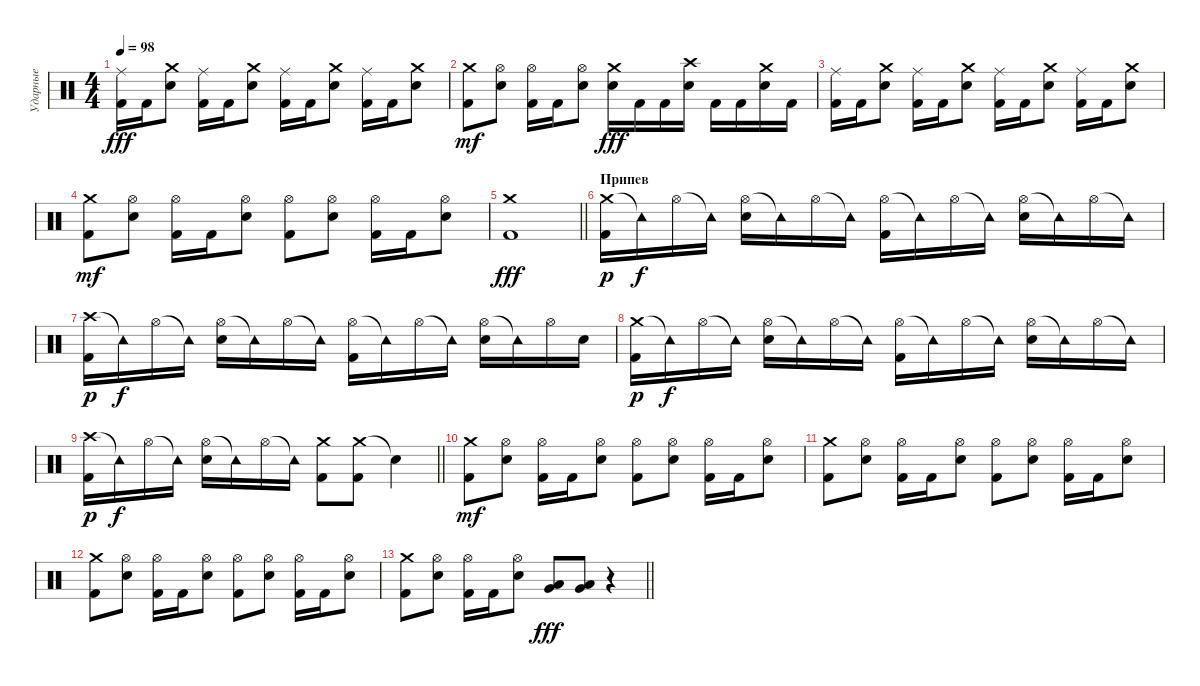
\track ("Ударные" "Ударные") {instrument percussion}
\staff {score}
\articulation defaults
\ts (4 4)
\tempo 98
\clef neutral
\ks c
("Ride (middle)" "Kick (hit) 2").16{dy fff} "Kick (hit) 2".16 ("Crash medium (hit)" "Snare (hit) 2").8 ("Ride (middle)" "Kick (hit) 2").16 "Kick (hit) 2".16 ("Crash medium (hit)" "Snare (hit) 2").8 ("Ride (middle)" "Kick (hit) 2").16 "Kick (hit) 2".16 ("Crash medium (hit)" "Snare (hit) 2").8 ("Ride (middle)" "Kick (hit) 2").16 "Kick (hit) 2".16 ("Crash medium (hit)" "Snare (hit) 2").8 |
("Crash medium (hit)" "Kick (hit) 2").8{dy mf} ("Hi-Hat (open)" "Snare (hit) 2").8 ("Hi-Hat (open)" "Kick (hit) 2").16 "Kick (hit) 2".16 ("Hi-Hat (open)" "Snare (hit) 2").8 ("Crash medium (hit)" "Snare (hit) 2").16{dy fff} "Kick (hit) 2".16 "Kick (hit) 2".16 ("Crash high (hit)" "Snare (hit) 2").16 "Kick (hit) 2".16 "Kick (hit) 2".16 ("Crash medium (hit)" "Snare (hit) 2").16 "Kick (hit) 2".16 |
("Ride (middle)" "Kick (hit) 2").16 "Kick (hit) 2".16 ("Crash medium (hit)" "Snare (hit) 2").8 ("Ride (middle)" "Kick (hit) 2").16 "Kick (hit) 2".16 ("Crash medium (hit)" "Snare (hit) 2").8 ("Ride (middle)" "Kick (hit) 2").16 "Kick (hit) 2".16 ("Crash medium (hit)" "Snare (hit) 2").8 ("Ride (middle)" "Kick (hit) 2").16 "Kick (hit) 2".16 ("Crash medium (hit)" "Snare (hit) 2").8 |
("Crash medium (hit)" "Kick (hit) 2").8{dy mf} ("Hi-Hat (open)" "Snare (hit) 2").8 ("Hi-Hat (open)" "Kick (hit) 2").16 "Kick (hit) 2".16 ("Hi-Hat (open)" "Snare (hit) 2").8 ("Hi-Hat (open)" "Kick (hit) 2").8 ("Hi-Hat (open)" "Snare (hit) 2").8 ("Hi-Hat (open)" "Kick (hit) 2").16 "Kick (hit) 2".16 ("Hi-Hat (open)" "Snare (hit) 2").8 |
\barLineRight lightlight
("Crash medium (hit)" "Kick (hit) 2").1{dy fff} |
\section ("" "Припев")
("Crash medium (hit)" "Kick (hit) 2").16{dy p} "Tambourine (hit)"{t}.16{dy f} "Hi-Hat (open)".16 "Tambourine (hit)"{t}.16 ("Hi-Hat (open)" "Snare (hit) 2").16 "Tambourine (hit)"{t}.16 "Hi-Hat (open)".16 "Tambourine (hit)"{t}.16 ("Hi-Hat (open)" "Kick (hit) 2").16 "Tambourine (hit)"{t}.16 "Hi-Hat (open)".16 "Tambourine (hit)"{t}.16 ("Hi-Hat (open)" "Snare (hit) 2").16 "Tambourine (hit)"{t}.16 "Hi-Hat (open)".16 "Tambourine (hit)"{t}.16 |
("Crash high (hit)" "Kick (hit) 2").16{dy p} "Tambourine (hit)"{t}.16{dy f} "Hi-Hat (open)".16 "Tambourine (hit)"{t}.16 ("Hi-Hat (open)" "Snare (hit) 2").16 "Tambourine (hit)"{t}.16 "Hi-Hat (open)".16 "Tambourine (hit)"{t}.16 ("Hi-Hat (open)" "Kick (hit) 2").16 "Tambourine (hit)"{t}.16 "Hi-Hat (open)".16 "Tambourine (hit)"{t}.16 ("Hi-Hat (open)" "Snare (hit) 2").16 "Tambourine (hit)"{t}.16 "Hi-Hat (open)".16 "Snare (hit) 2".16 |
("Crash medium (hit)" "Kick (hit) 2").16{dy p} "Tambourine (hit)"{t}.16{dy f} "Hi-Hat (open)".16 "Tambourine (hit)"{t}.16 ("Hi-Hat (open)" "Snare (hit) 2").16 "Tambourine (hit)"{t}.16 "Hi-Hat (open)".16 "Tambourine (hit)"{t}.16 ("Hi-Hat (open)" "Kick (hit) 2").16 "Tambourine (hit)"{t}.16 "Hi-Hat (open)".16 "Tambourine (hit)"{t}.16 ("Hi-Hat (open)" "Snare (hit) 2").16 "Tambourine (hit)"{t}.16 "Hi-Hat (open)".16 "Tambourine (hit)"{t}.16 |
\barLineRight lightlight
("Crash high (hit)" "Kick (hit) 2").16{dy p} "Tambourine (hit)"{t}.16{dy f} "Hi-Hat (open)".16 "Tambourine (hit)"{t}.16 ("Hi-Hat (open)" "Snare (hit) 2").16 "Tambourine (hit)"{t}.16 "Hi-Hat (open)".16 "Tambourine (hit)"{t}.16 ("Crash medium (hit)" "Kick (hit) 2").8 ("Crash medium (hit)" "Kick (hit) 2").8 "Snare (hit)"{t}.4 |
("Crash medium (hit)" "Kick (hit) 2").8{dy mf} ("Hi-Hat (open)" "Snare (hit) 2").8 ("Hi-Hat (open)" "Kick (hit) 2").16 "Kick (hit) 2".16 ("Hi-Hat (open)" "Snare (hit) 2").8 ("Hi-Hat (open)" "Kick (hit) 2").8 ("Hi-Hat (open)" "Snare (hit) 2").8 ("Hi-Hat (open)" "Kick (hit) 2").16 "Kick (hit) 2".16 ("Hi-Hat (open)" "Snare (hit) 2").8 |
("Crash medium (hit)" "Kick (hit) 2").8 ("Hi-Hat (open)" "Snare (hit) 2").8 ("Hi-Hat (open)" "Kick (hit) 2").16 "Kick (hit) 2".16 ("Hi-Hat (open)" "Snare (hit) 2").8 ("Hi-Hat (open)" "Kick (hit) 2").8 ("Hi-Hat (open)" "Snare (hit) 2").8 ("Hi-Hat (open)" "Kick (hit) 2").16 "Kick (hit) 2".16 ("Hi-Hat (open)" "Snare (hit) 2").8 |
("Crash medium (hit)" "Kick (hit) 2").8 ("Hi-Hat (open)" "Snare (hit) 2").8 ("Hi-Hat (open)" "Kick (hit) 2").16 "Kick (hit) 2".16 ("Hi-Hat (open)" "Snare (hit) 2").8 ("Hi-Hat (open)" "Kick (hit) 2").8 ("Hi-Hat (open)" "Snare (hit) 2").8 ("Hi-Hat (open)" "Kick (hit) 2").16 "Kick (hit) 2".16 ("Hi-Hat (open)" "Snare (hit) 2").8 |
\barLineRight lightlight
("Crash medium (hit)" "Kick (hit) 2").8 ("Hi-Hat (open)" "Snare (hit) 2").8 ("Hi-Hat (open)" "Kick (hit) 2").16 "Kick (hit) 2".16 ("Hi-Hat (open)" "Snare (hit) 2").8 ("Low Tom (hit)" "Very Low Tom (hit)").8{dy fff} ("Low Tom (hit)" "Very Low Tom (hit)").8 r.4
